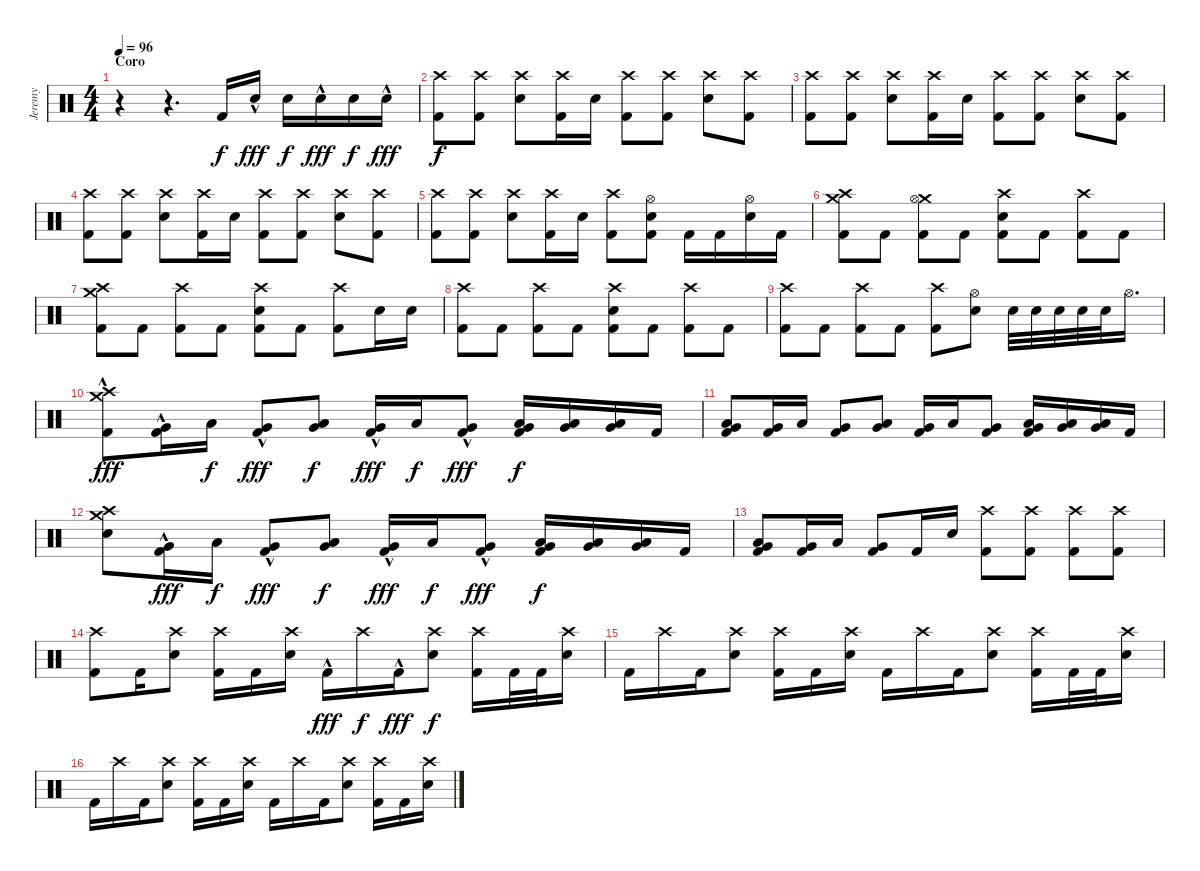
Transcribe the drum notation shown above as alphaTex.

\track ("Jeremy" "Jeremy") {instrument percussion}
\staff {score}
\articulation defaults
\ts (4 4)
\section ("" "Coro")
\tempo 96
\clef neutral
\ks c
r.4{dy f} r.4{d} "Kick (hit) 2".16 "Snare (hit) 2"{hac}.16{dy fff} "Snare (hit) 2".16{dy f} "Snare (hit) 2"{hac}.16{dy fff} "Snare (hit) 2".16{dy f} "Snare (hit) 2"{hac}.16{dy fff} |
("Crash high (hit)" "Kick (hit) 2").8{dy f} ("Crash high (hit)" "Kick (hit) 2").8 ("Crash high (hit)" "Snare (hit) 2").8 ("Crash high (hit)" "Kick (hit) 2").16 "Snare (hit) 2".16 ("Crash high (hit)" "Kick (hit) 2").8 ("Crash high (hit)" "Kick (hit) 2").8 ("Crash high (hit)" "Snare (hit) 2").8 ("Crash high (hit)" "Kick (hit) 2").8 |
("Crash high (hit)" "Kick (hit) 2").8 ("Crash high (hit)" "Kick (hit) 2").8 ("Crash high (hit)" "Snare (hit) 2").8 ("Crash high (hit)" "Kick (hit) 2").16 "Snare (hit) 2".16 ("Crash high (hit)" "Kick (hit) 2").8 ("Crash high (hit)" "Kick (hit) 2").8 ("Crash high (hit)" "Snare (hit) 2").8 ("Crash high (hit)" "Kick (hit) 2").8 |
("Crash high (hit)" "Kick (hit) 2").8 ("Crash high (hit)" "Kick (hit) 2").8 ("Crash high (hit)" "Snare (hit) 2").8 ("Crash high (hit)" "Kick (hit) 2").16 "Snare (hit) 2".16 ("Crash high (hit)" "Kick (hit) 2").8 ("Crash high (hit)" "Kick (hit) 2").8 ("Crash high (hit)" "Snare (hit) 2").8 ("Crash high (hit)" "Kick (hit) 2").8 |
("Crash high (hit)" "Kick (hit) 2").8 ("Crash high (hit)" "Kick (hit) 2").8 ("Crash high (hit)" "Snare (hit) 2").8 ("Crash high (hit)" "Kick (hit) 2").16 "Snare (hit) 2".16 ("Crash high (hit)" "Kick (hit) 2").8 ("Hi-Hat (open)" "Snare (hit) 2" "Kick (hit) 2").8 "Kick (hit) 2".16 "Kick (hit) 2".16 ("Hi-Hat (open)" "Snare (hit) 2").16 "Kick (hit) 2".16 |
("Crash high (hit)" "Crash medium (hit)" "Kick (hit) 2").8 "Kick (hit) 2".8 ("Crash medium (hit)" "Hi-Hat (open)" "Kick (hit) 2").8 "Kick (hit) 2".8 ("Crash high (hit)" "Snare (hit) 2" "Kick (hit) 2").8 "Kick (hit) 2".8 ("Crash high (hit)" "Kick (hit) 2").8 "Kick (hit) 2".8 |
("Crash high (hit)" "Crash medium (hit)" "Kick (hit) 2").8 "Kick (hit) 2".8 ("Crash high (hit)" "Kick (hit) 2").8 "Kick (hit) 2".8 ("Crash high (hit)" "Snare (hit) 2" "Kick (hit) 2").8 "Kick (hit) 2".8 ("Crash high (hit)" "Kick (hit) 2").8 "Snare (hit) 2".16 "Snare (hit) 2".16 |
("Crash high (hit)" "Kick (hit) 2").8 "Kick (hit) 2".8 ("Crash high (hit)" "Kick (hit) 2").8 "Kick (hit) 2".8 ("Crash high (hit)" "Snare (hit) 2" "Kick (hit) 2").8 "Kick (hit) 2".8 ("Crash high (hit)" "Kick (hit) 2").8 "Kick (hit) 2".8 |
("Crash high (hit)" "Kick (hit) 2").8 "Kick (hit) 2".8 ("Crash high (hit)" "Kick (hit) 2").8 "Kick (hit) 2".8 ("Crash high (hit)" "Kick (hit) 2").8 ("Hi-Hat (open)" "Snare (hit) 2").8 "Snare (hit) 2".32 "Snare (hit) 2".32 "Snare (hit) 2".32 "Snare (hit) 2".32 "Snare (hit) 2".32 "Hi-Hat (open)".16{d} |
("Crash high (hit)" "Crash medium (hit)" "Kick (hit) 2"{hac}).8{dy fff} ("Very Low Tom (hit)" "Kick (hit) 2"{hac}).16 "Low Tom (hit)".16{dy f} ("Very Low Tom (hit)" "Kick (hit) 2"{hac}).8{dy fff} ("Low Tom (hit)" "Very Low Tom (hit)").8{dy f} ("Very Low Tom (hit)" "Kick (hit) 2"{hac}).16{dy fff} "Low Tom (hit)".16{dy f} ("Very Low Tom (hit)" "Kick (hit) 2"{hac}).8{dy fff} ("Low Tom (hit)" "Very Low Tom (hit)" "Kick (hit) 2").16{dy f} ("Low Tom (hit)" "Very Low Tom (hit)").16 ("Low Tom (hit)" "Very Low Tom (hit)").16 "Kick (hit) 2".16 |
("Low Tom (hit)" "Very Low Tom (hit)" "Kick (hit) 2").8 ("Very Low Tom (hit)" "Kick (hit) 2").16 "Low Tom (hit)".16 ("Very Low Tom (hit)" "Kick (hit) 2").8 ("Low Tom (hit)" "Very Low Tom (hit)").8 ("Very Low Tom (hit)" "Kick (hit) 2").16 "Low Tom (hit)".16 ("Very Low Tom (hit)" "Kick (hit) 2").8 ("Low Tom (hit)" "Very Low Tom (hit)" "Kick (hit) 2").16 ("Low Tom (hit)" "Very Low Tom (hit)").16 ("Low Tom (hit)" "Very Low Tom (hit)").16 "Kick (hit) 2".16 |
("Crash high (hit)" "Crash medium (hit)" "Snare (hit) 2").8 ("Very Low Tom (hit)" "Kick (hit) 2"{hac}).16{dy fff} "Low Tom (hit)".16{dy f} ("Very Low Tom (hit)" "Kick (hit) 2"{hac}).8{dy fff} ("Low Tom (hit)" "Very Low Tom (hit)").8{dy f} ("Very Low Tom (hit)" "Kick (hit) 2"{hac}).16{dy fff} "Low Tom (hit)".16{dy f} ("Very Low Tom (hit)" "Kick (hit) 2"{hac}).8{dy fff} ("Low Tom (hit)" "Very Low Tom (hit)" "Kick (hit) 2").16{dy f} ("Low Tom (hit)" "Very Low Tom (hit)").16 ("Low Tom (hit)" "Very Low Tom (hit)").16 "Kick (hit) 2".16 |
("Low Tom (hit)" "Very Low Tom (hit)" "Kick (hit) 2").8 ("Very Low Tom (hit)" "Kick (hit) 2").16 "Low Tom (hit)".16 ("Very Low Tom (hit)" "Kick (hit) 2").8 "Kick (hit) 2".16 "Snare (hit) 2".16 ("Crash high (hit)" "Kick (hit) 2").8 ("Crash high (hit)" "Kick (hit) 2").8 ("Crash high (hit)" "Kick (hit) 2").8 ("Crash high (hit)" "Kick (hit) 2").8 |
("Crash high (hit)" "Kick (hit) 2").8 "Kick (hit) 2".16 ("Crash high (hit)" "Snare (hit) 2").8 ("Crash high (hit)" "Kick (hit) 2").16 "Kick (hit) 2".16 ("Crash high (hit)" "Snare (hit) 2").16 "Kick (hit) 2"{hac}.16{dy fff} "Crash high (hit)".16{dy f} "Kick (hit) 2"{hac}.16{dy fff} ("Crash high (hit)" "Snare (hit) 2").8{dy f} ("Crash high (hit)" "Kick (hit) 2").16 "Kick (hit) 2".32 "Kick (hit) 2".32 ("Crash high (hit)" "Snare (hit) 2").16 |
"Kick (hit) 2".16 "Crash high (hit)".16 "Kick (hit) 2".16 ("Crash high (hit)" "Snare (hit) 2").8 ("Crash high (hit)" "Kick (hit) 2").16 "Kick (hit) 2".16 ("Crash high (hit)" "Snare (hit) 2").16 "Kick (hit) 2".16 "Crash high (hit)".16 "Kick (hit) 2".16 ("Crash high (hit)" "Snare (hit) 2").8 ("Crash high (hit)" "Kick (hit) 2").16 "Kick (hit) 2".32 "Kick (hit) 2".32 ("Crash high (hit)" "Snare (hit) 2").16 |
"Kick (hit) 2".16 "Crash high (hit)".16 "Kick (hit) 2".16 ("Crash high (hit)" "Snare (hit) 2").8 ("Crash high (hit)" "Kick (hit) 2").16 "Kick (hit) 2".16 ("Crash high (hit)" "Snare (hit) 2").16 "Kick (hit) 2".16 "Crash high (hit)".16 "Kick (hit) 2".16 ("Crash high (hit)" "Snare (hit) 2").8 ("Crash high (hit)" "Kick (hit) 2").16 "Kick (hit) 2".16 ("Crash high (hit)" "Snare (hit) 2").16
